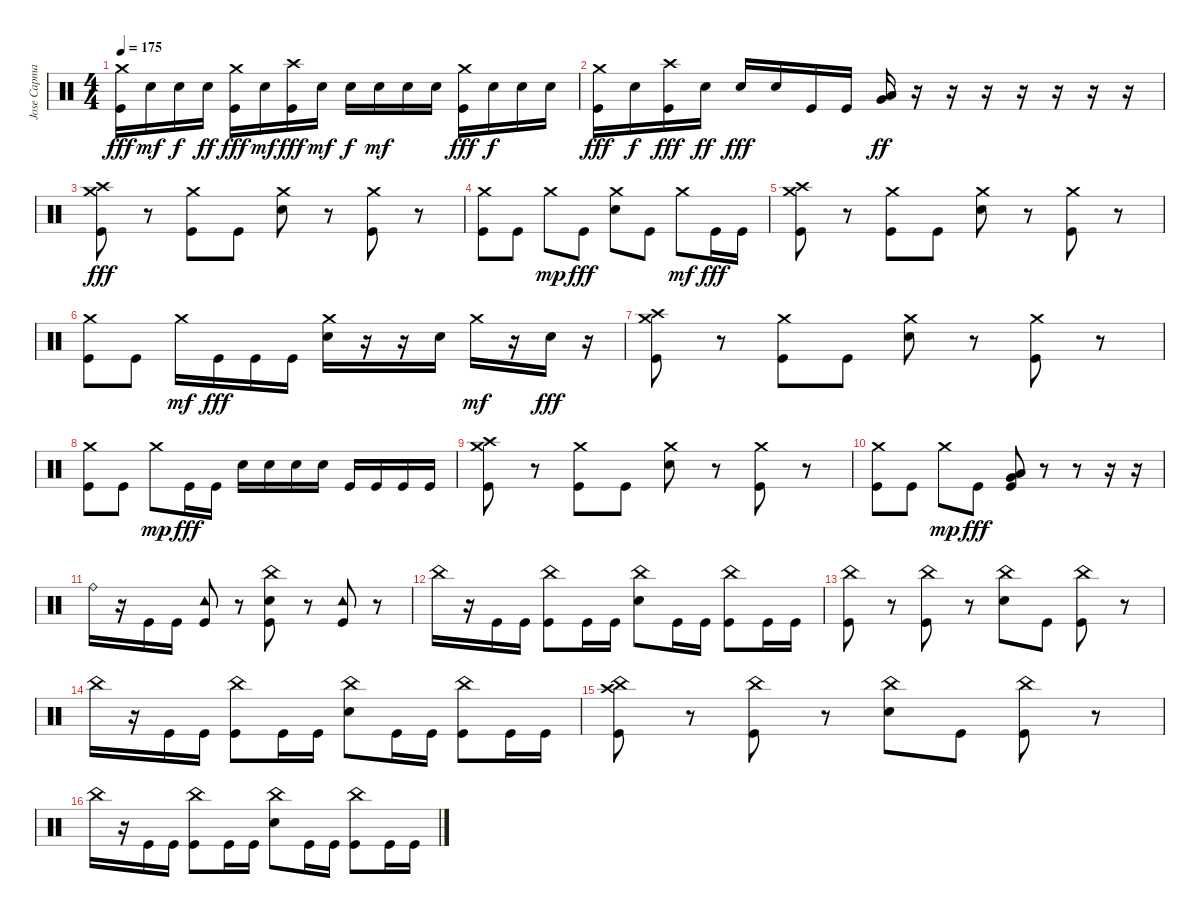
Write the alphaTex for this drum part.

\track ("Jose Capmany" "Jose Capma") {instrument percussion}
\staff {score}
\articulation defaults
\ts (4 4)
\tempo 175
\clef neutral
\ks c
("Crash medium (hit)" "Kick (hit)").16{dy fff} "Snare (hit) 2".16{dy mf} "Snare (hit) 2".16{dy f} "Snare (hit) 2".16{dy ff} ("Crash medium (hit)" "Kick (hit)").16{dy fff} "Snare (hit) 2".16{dy mf} ("Crash high (hit)" "Kick (hit)").16{dy fff} "Snare (hit) 2".16{dy mf} "Snare (hit) 2".16{dy f} "Snare (hit) 2".16{dy mf} "Snare (hit) 2".16 "Snare (hit) 2".16 ("Crash medium (hit)" "Kick (hit)").16{dy fff} "Snare (hit) 2".16{dy f} "Snare (hit) 2".16 "Snare (hit) 2".16 |
("Crash medium (hit)" "Kick (hit)").16{dy fff} "Snare (hit) 2".16{dy f} ("Crash high (hit)" "Kick (hit)").16{dy fff} "Snare (hit) 2".16{dy ff} "Snare (hit) 2".16{dy fff} "Snare (hit) 2".16 "Kick (hit)".16 "Kick (hit)".16 ("Very Low Tom (hit)" "Low Floor Tom (hit)").16{dy ff} r.16 r.16 r.16 r.16 r.16 r.16 r.16 |
("Crash high (hit)" "Crash medium (hit)" "Kick (hit)").8{dy fff} r.8 ("Crash medium (hit)" "Kick (hit)").8 "Kick (hit)".8 ("Crash medium (hit)" "Snare (hit) 2").8 r.8 ("Crash medium (hit)" "Kick (hit)").8 r.8 |
("Crash medium (hit)" "Kick (hit)").8 "Kick (hit)".8 "Crash medium (hit)".8{dy mp} "Kick (hit)".8{dy fff} ("Crash medium (hit)" "Snare (hit) 2").8 "Kick (hit)".8 "Crash medium (hit)".8{dy mf} "Kick (hit)".16{dy fff} "Kick (hit)".16 |
("Crash high (hit)" "Crash medium (hit)" "Kick (hit)").8 r.8 ("Crash medium (hit)" "Kick (hit)").8 "Kick (hit)".8 ("Crash medium (hit)" "Snare (hit) 2").8 r.8 ("Crash medium (hit)" "Kick (hit)").8 r.8 |
("Crash medium (hit)" "Kick (hit)").8 "Kick (hit)".8 "Crash medium (hit)".16{dy mf} "Kick (hit)".16{dy fff} "Kick (hit)".16 "Kick (hit)".16 ("Crash medium (hit)" "Snare (hit) 2").16 r.16 r.16 "Snare (hit) 2".16 "Crash medium (hit)".16{dy mf} r.16 "Snare (hit) 2".16{dy fff} r.16 |
("Crash high (hit)" "Crash medium (hit)" "Kick (hit)").8 r.8 ("Crash medium (hit)" "Kick (hit)").8 "Kick (hit)".8 ("Crash medium (hit)" "Snare (hit) 2").8 r.8 ("Crash medium (hit)" "Kick (hit)").8 r.8 |
("Crash medium (hit)" "Kick (hit)").8 "Kick (hit)".8 "Crash medium (hit)".8{dy mp} "Kick (hit)".16{dy fff} "Kick (hit)".16 "Snare (hit) 2".16 "Snare (hit) 2".16 "Snare (hit) 2".16 "Snare (hit) 2".16 "Kick (hit)".16 "Kick (hit)".16 "Kick (hit)".16 "Kick (hit)".16 |
("Crash high (hit)" "Crash medium (hit)" "Kick (hit)").8 r.8 ("Crash medium (hit)" "Kick (hit)").8 "Kick (hit)".8 ("Crash medium (hit)" "Snare (hit) 2").8 r.8 ("Crash medium (hit)" "Kick (hit)").8 r.8 |
("Crash medium (hit)" "Kick (hit)").8 "Kick (hit)".8 "Crash medium (hit)".8{dy mp} "Kick (hit)".8{dy fff} ("Low Floor Tom (hit)" "Very Low Tom (hit)" "Kick (hit)").8 r.8 r.8 r.16 r.16 |
"Ride (bell)".16 r.16 "Kick (hit)".16 "Kick (hit)".16 ("Tambourine (hit)" "Kick (hit)").8 r.8 ("China (hit)" "Snare (hit) 2" "Kick (hit)").8 r.8 ("Tambourine (hit)" "Kick (hit)").8 r.8 |
"China (hit)".16 r.16 "Kick (hit)".16 "Kick (hit)".16 ("China (hit)" "Kick (hit)").8 "Kick (hit)".16 "Kick (hit)".16 ("China (hit)" "Snare (hit) 2").8 "Kick (hit)".16 "Kick (hit)".16 ("China (hit)" "Kick (hit)").8 "Kick (hit)".16 "Kick (hit)".16 |
("China (hit)" "Kick (hit)").8 r.8 ("China (hit)" "Kick (hit)").8 r.8 ("China (hit)" "Snare (hit) 2").8 "Kick (hit)".8 ("China (hit)" "Kick (hit)").8 r.8 |
"China (hit)".16 r.16 "Kick (hit)".16 "Kick (hit)".16 ("China (hit)" "Kick (hit)").8 "Kick (hit)".16 "Kick (hit)".16 ("China (hit)" "Snare (hit) 2").8 "Kick (hit)".16 "Kick (hit)".16 ("China (hit)" "Kick (hit)").8 "Kick (hit)".16 "Kick (hit)".16 |
("China (hit)" "Crash high (hit)" "Kick (hit)").8 r.8 ("China (hit)" "Kick (hit)").8 r.8 ("China (hit)" "Snare (hit) 2").8 "Kick (hit)".8 ("China (hit)" "Kick (hit)").8 r.8 |
"China (hit)".16 r.16 "Kick (hit)".16 "Kick (hit)".16 ("China (hit)" "Kick (hit)").8 "Kick (hit)".16 "Kick (hit)".16 ("China (hit)" "Snare (hit) 2").8 "Kick (hit)".16 "Kick (hit)".16 ("China (hit)" "Kick (hit)").8 "Kick (hit)".16 "Kick (hit)".16
